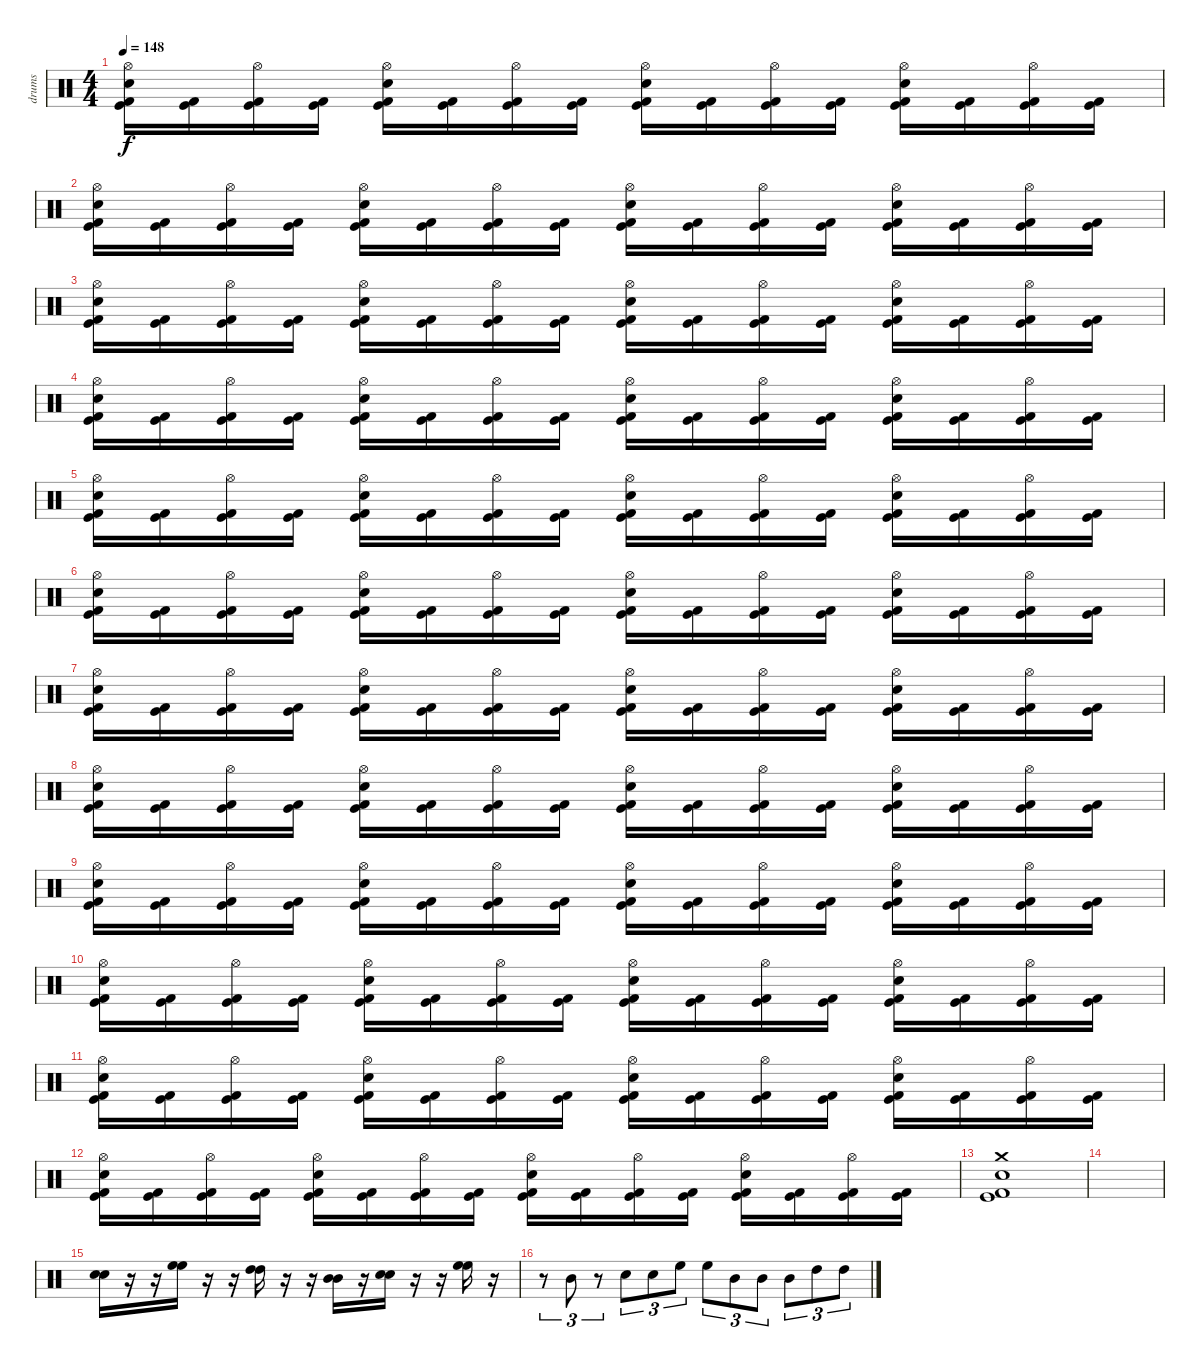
\track ("drums" "drums") {instrument percussion}
\staff {score}
\articulation defaults
\ts (4 4)
\tempo 148
\clef neutral
\ks c
("Kick (hit)" "Kick (hit) 2" "Snare (hit) 2" "Hi-Hat (open)").16{dy f} ("Kick (hit)" "Kick (hit) 2").16 ("Kick (hit)" "Kick (hit) 2" "Hi-Hat (open)").16 ("Kick (hit)" "Kick (hit) 2").16 ("Kick (hit)" "Kick (hit) 2" "Snare (hit) 2" "Hi-Hat (open)").16 ("Kick (hit)" "Kick (hit) 2").16 ("Kick (hit)" "Kick (hit) 2" "Hi-Hat (open)").16 ("Kick (hit)" "Kick (hit) 2").16 ("Kick (hit)" "Kick (hit) 2" "Snare (hit) 2" "Hi-Hat (open)").16 ("Kick (hit)" "Kick (hit) 2").16 ("Kick (hit)" "Kick (hit) 2" "Hi-Hat (open)").16 ("Kick (hit)" "Kick (hit) 2").16 ("Kick (hit)" "Kick (hit) 2" "Snare (hit) 2" "Hi-Hat (open)").16 ("Kick (hit)" "Kick (hit) 2").16 ("Kick (hit)" "Kick (hit) 2" "Hi-Hat (open)").16 ("Kick (hit)" "Kick (hit) 2").16 |
("Kick (hit)" "Kick (hit) 2" "Snare (hit) 2" "Hi-Hat (open)").16 ("Kick (hit)" "Kick (hit) 2").16 ("Kick (hit)" "Kick (hit) 2" "Hi-Hat (open)").16 ("Kick (hit)" "Kick (hit) 2").16 ("Kick (hit)" "Kick (hit) 2" "Snare (hit) 2" "Hi-Hat (open)").16 ("Kick (hit)" "Kick (hit) 2").16 ("Kick (hit)" "Kick (hit) 2" "Hi-Hat (open)").16 ("Kick (hit)" "Kick (hit) 2").16 ("Kick (hit)" "Kick (hit) 2" "Snare (hit) 2" "Hi-Hat (open)").16 ("Kick (hit)" "Kick (hit) 2").16 ("Kick (hit)" "Kick (hit) 2" "Hi-Hat (open)").16 ("Kick (hit)" "Kick (hit) 2").16 ("Kick (hit)" "Kick (hit) 2" "Snare (hit) 2" "Hi-Hat (open)").16 ("Kick (hit)" "Kick (hit) 2").16 ("Kick (hit)" "Kick (hit) 2" "Hi-Hat (open)").16 ("Kick (hit)" "Kick (hit) 2").16 |
("Kick (hit)" "Kick (hit) 2" "Snare (hit) 2" "Hi-Hat (open)").16 ("Kick (hit)" "Kick (hit) 2").16 ("Kick (hit)" "Kick (hit) 2" "Hi-Hat (open)").16 ("Kick (hit)" "Kick (hit) 2").16 ("Kick (hit)" "Kick (hit) 2" "Snare (hit) 2" "Hi-Hat (open)").16 ("Kick (hit)" "Kick (hit) 2").16 ("Kick (hit)" "Kick (hit) 2" "Hi-Hat (open)").16 ("Kick (hit)" "Kick (hit) 2").16 ("Kick (hit)" "Kick (hit) 2" "Snare (hit) 2" "Hi-Hat (open)").16 ("Kick (hit)" "Kick (hit) 2").16 ("Kick (hit)" "Kick (hit) 2" "Hi-Hat (open)").16 ("Kick (hit)" "Kick (hit) 2").16 ("Kick (hit)" "Kick (hit) 2" "Snare (hit) 2" "Hi-Hat (open)").16 ("Kick (hit)" "Kick (hit) 2").16 ("Kick (hit)" "Kick (hit) 2" "Hi-Hat (open)").16 ("Kick (hit)" "Kick (hit) 2").16 |
("Kick (hit)" "Kick (hit) 2" "Snare (hit) 2" "Hi-Hat (open)").16 ("Kick (hit)" "Kick (hit) 2").16 ("Kick (hit)" "Kick (hit) 2" "Hi-Hat (open)").16 ("Kick (hit)" "Kick (hit) 2").16 ("Kick (hit)" "Kick (hit) 2" "Snare (hit) 2" "Hi-Hat (open)").16 ("Kick (hit)" "Kick (hit) 2").16 ("Kick (hit)" "Kick (hit) 2" "Hi-Hat (open)").16 ("Kick (hit)" "Kick (hit) 2").16 ("Kick (hit)" "Kick (hit) 2" "Snare (hit) 2" "Hi-Hat (open)").16 ("Kick (hit)" "Kick (hit) 2").16 ("Kick (hit)" "Kick (hit) 2" "Hi-Hat (open)").16 ("Kick (hit)" "Kick (hit) 2").16 ("Kick (hit)" "Kick (hit) 2" "Snare (hit) 2" "Hi-Hat (open)").16 ("Kick (hit)" "Kick (hit) 2").16 ("Kick (hit)" "Kick (hit) 2" "Hi-Hat (open)").16 ("Kick (hit)" "Kick (hit) 2").16 |
("Kick (hit)" "Kick (hit) 2" "Snare (hit) 2" "Hi-Hat (open)").16 ("Kick (hit)" "Kick (hit) 2").16 ("Kick (hit)" "Kick (hit) 2" "Hi-Hat (open)").16 ("Kick (hit)" "Kick (hit) 2").16 ("Kick (hit)" "Kick (hit) 2" "Snare (hit) 2" "Hi-Hat (open)").16 ("Kick (hit)" "Kick (hit) 2").16 ("Kick (hit)" "Kick (hit) 2" "Hi-Hat (open)").16 ("Kick (hit)" "Kick (hit) 2").16 ("Kick (hit)" "Kick (hit) 2" "Snare (hit) 2" "Hi-Hat (open)").16 ("Kick (hit)" "Kick (hit) 2").16 ("Kick (hit)" "Kick (hit) 2" "Hi-Hat (open)").16 ("Kick (hit)" "Kick (hit) 2").16 ("Kick (hit)" "Kick (hit) 2" "Snare (hit) 2" "Hi-Hat (open)").16 ("Kick (hit)" "Kick (hit) 2").16 ("Kick (hit)" "Kick (hit) 2" "Hi-Hat (open)").16 ("Kick (hit)" "Kick (hit) 2").16 |
("Kick (hit)" "Kick (hit) 2" "Snare (hit) 2" "Hi-Hat (open)").16 ("Kick (hit)" "Kick (hit) 2").16 ("Kick (hit)" "Kick (hit) 2" "Hi-Hat (open)").16 ("Kick (hit)" "Kick (hit) 2").16 ("Kick (hit)" "Kick (hit) 2" "Snare (hit) 2" "Hi-Hat (open)").16 ("Kick (hit)" "Kick (hit) 2").16 ("Kick (hit)" "Kick (hit) 2" "Hi-Hat (open)").16 ("Kick (hit)" "Kick (hit) 2").16 ("Kick (hit)" "Kick (hit) 2" "Snare (hit) 2" "Hi-Hat (open)").16 ("Kick (hit)" "Kick (hit) 2").16 ("Kick (hit)" "Kick (hit) 2" "Hi-Hat (open)").16 ("Kick (hit)" "Kick (hit) 2").16 ("Kick (hit)" "Kick (hit) 2" "Snare (hit) 2" "Hi-Hat (open)").16 ("Kick (hit)" "Kick (hit) 2").16 ("Kick (hit)" "Kick (hit) 2" "Hi-Hat (open)").16 ("Kick (hit)" "Kick (hit) 2").16 |
("Kick (hit)" "Kick (hit) 2" "Snare (hit) 2" "Hi-Hat (open)").16 ("Kick (hit)" "Kick (hit) 2").16 ("Kick (hit)" "Kick (hit) 2" "Hi-Hat (open)").16 ("Kick (hit)" "Kick (hit) 2").16 ("Kick (hit)" "Kick (hit) 2" "Snare (hit) 2" "Hi-Hat (open)").16 ("Kick (hit)" "Kick (hit) 2").16 ("Kick (hit)" "Kick (hit) 2" "Hi-Hat (open)").16 ("Kick (hit)" "Kick (hit) 2").16 ("Kick (hit)" "Kick (hit) 2" "Snare (hit) 2" "Hi-Hat (open)").16 ("Kick (hit)" "Kick (hit) 2").16 ("Kick (hit)" "Kick (hit) 2" "Hi-Hat (open)").16 ("Kick (hit)" "Kick (hit) 2").16 ("Kick (hit)" "Kick (hit) 2" "Snare (hit) 2" "Hi-Hat (open)").16 ("Kick (hit)" "Kick (hit) 2").16 ("Kick (hit)" "Kick (hit) 2" "Hi-Hat (open)").16 ("Kick (hit)" "Kick (hit) 2").16 |
("Kick (hit)" "Kick (hit) 2" "Snare (hit) 2" "Hi-Hat (open)").16 ("Kick (hit)" "Kick (hit) 2").16 ("Kick (hit)" "Kick (hit) 2" "Hi-Hat (open)").16 ("Kick (hit)" "Kick (hit) 2").16 ("Kick (hit)" "Kick (hit) 2" "Snare (hit) 2" "Hi-Hat (open)").16 ("Kick (hit)" "Kick (hit) 2").16 ("Kick (hit)" "Kick (hit) 2" "Hi-Hat (open)").16 ("Kick (hit)" "Kick (hit) 2").16 ("Kick (hit)" "Kick (hit) 2" "Snare (hit) 2" "Hi-Hat (open)").16 ("Kick (hit)" "Kick (hit) 2").16 ("Kick (hit)" "Kick (hit) 2" "Hi-Hat (open)").16 ("Kick (hit)" "Kick (hit) 2").16 ("Kick (hit)" "Kick (hit) 2" "Snare (hit) 2" "Hi-Hat (open)").16 ("Kick (hit)" "Kick (hit) 2").16 ("Kick (hit)" "Kick (hit) 2" "Hi-Hat (open)").16 ("Kick (hit)" "Kick (hit) 2").16 |
("Kick (hit)" "Kick (hit) 2" "Snare (hit) 2" "Hi-Hat (open)").16 ("Kick (hit)" "Kick (hit) 2").16 ("Kick (hit)" "Kick (hit) 2" "Hi-Hat (open)").16 ("Kick (hit)" "Kick (hit) 2").16 ("Kick (hit)" "Kick (hit) 2" "Snare (hit) 2" "Hi-Hat (open)").16 ("Kick (hit)" "Kick (hit) 2").16 ("Kick (hit)" "Kick (hit) 2" "Hi-Hat (open)").16 ("Kick (hit)" "Kick (hit) 2").16 ("Kick (hit)" "Kick (hit) 2" "Snare (hit) 2" "Hi-Hat (open)").16 ("Kick (hit)" "Kick (hit) 2").16 ("Kick (hit)" "Kick (hit) 2" "Hi-Hat (open)").16 ("Kick (hit)" "Kick (hit) 2").16 ("Kick (hit)" "Kick (hit) 2" "Snare (hit) 2" "Hi-Hat (open)").16 ("Kick (hit)" "Kick (hit) 2").16 ("Kick (hit)" "Kick (hit) 2" "Hi-Hat (open)").16 ("Kick (hit)" "Kick (hit) 2").16 |
("Kick (hit)" "Kick (hit) 2" "Snare (hit) 2" "Hi-Hat (open)").16 ("Kick (hit)" "Kick (hit) 2").16 ("Kick (hit)" "Kick (hit) 2" "Hi-Hat (open)").16 ("Kick (hit)" "Kick (hit) 2").16 ("Kick (hit)" "Kick (hit) 2" "Snare (hit) 2" "Hi-Hat (open)").16 ("Kick (hit)" "Kick (hit) 2").16 ("Kick (hit)" "Kick (hit) 2" "Hi-Hat (open)").16 ("Kick (hit)" "Kick (hit) 2").16 ("Kick (hit)" "Kick (hit) 2" "Snare (hit) 2" "Hi-Hat (open)").16 ("Kick (hit)" "Kick (hit) 2").16 ("Kick (hit)" "Kick (hit) 2" "Hi-Hat (open)").16 ("Kick (hit)" "Kick (hit) 2").16 ("Kick (hit)" "Kick (hit) 2" "Snare (hit) 2" "Hi-Hat (open)").16 ("Kick (hit)" "Kick (hit) 2").16 ("Kick (hit)" "Kick (hit) 2" "Hi-Hat (open)").16 ("Kick (hit)" "Kick (hit) 2").16 |
("Kick (hit)" "Kick (hit) 2" "Snare (hit) 2" "Hi-Hat (open)").16 ("Kick (hit)" "Kick (hit) 2").16 ("Kick (hit)" "Kick (hit) 2" "Hi-Hat (open)").16 ("Kick (hit)" "Kick (hit) 2").16 ("Kick (hit)" "Kick (hit) 2" "Snare (hit) 2" "Hi-Hat (open)").16 ("Kick (hit)" "Kick (hit) 2").16 ("Kick (hit)" "Kick (hit) 2" "Hi-Hat (open)").16 ("Kick (hit)" "Kick (hit) 2").16 ("Kick (hit)" "Kick (hit) 2" "Snare (hit) 2" "Hi-Hat (open)").16 ("Kick (hit)" "Kick (hit) 2").16 ("Kick (hit)" "Kick (hit) 2" "Hi-Hat (open)").16 ("Kick (hit)" "Kick (hit) 2").16 ("Kick (hit)" "Kick (hit) 2" "Snare (hit) 2" "Hi-Hat (open)").16 ("Kick (hit)" "Kick (hit) 2").16 ("Kick (hit)" "Kick (hit) 2" "Hi-Hat (open)").16 ("Kick (hit)" "Kick (hit) 2").16 |
("Kick (hit)" "Kick (hit) 2" "Snare (hit) 2" "Hi-Hat (open)").16 ("Kick (hit)" "Kick (hit) 2").16 ("Kick (hit)" "Kick (hit) 2" "Hi-Hat (open)").16 ("Kick (hit)" "Kick (hit) 2").16 ("Kick (hit)" "Kick (hit) 2" "Snare (hit) 2" "Hi-Hat (open)").16 ("Kick (hit)" "Kick (hit) 2").16 ("Kick (hit)" "Kick (hit) 2" "Hi-Hat (open)").16 ("Kick (hit)" "Kick (hit) 2").16 ("Kick (hit)" "Kick (hit) 2" "Snare (hit) 2" "Hi-Hat (open)").16 ("Kick (hit)" "Kick (hit) 2").16 ("Kick (hit)" "Kick (hit) 2" "Hi-Hat (open)").16 ("Kick (hit)" "Kick (hit) 2").16 ("Kick (hit)" "Kick (hit) 2" "Snare (hit) 2" "Hi-Hat (open)").16 ("Kick (hit)" "Kick (hit) 2").16 ("Kick (hit)" "Kick (hit) 2" "Hi-Hat (open)").16 ("Kick (hit)" "Kick (hit) 2").16 |
("Snare (hit) 2" "Kick (hit)" "Kick (hit) 2" "Crash medium (hit)").1 |
|
("Snare (hit) 2" "Snare (hit) 2").16 r.16 r.16 ("High Floor Tom (hit)" "High Floor Tom (hit)").16 r.16 r.16 ("High Tom (hit)" "High Tom (hit)").16 r.16 r.16 ("Mid Tom (hit)" "Mid Tom (hit)").16 r.16 ("Snare (hit) 2" "Snare (hit) 2").16 r.16 r.16 ("High Floor Tom (hit)" "High Floor Tom (hit)").16 r.16 |
r.8{tu (3 2)} "Mid Tom (hit)".8{tu (3 2)} r.8{tu (3 2)} "Snare (hit) 2".8{tu (3 2)} "Snare (hit) 2".8{tu (3 2)} "High Floor Tom (hit)".8{tu (3 2)} "High Floor Tom (hit)".8{tu (3 2)} "Mid Tom (hit)".8{tu (3 2)} "Mid Tom (hit)".8{tu (3 2)} "Mid Tom (hit)".8{tu (3 2)} "High Tom (hit)".8{tu (3 2)} "High Tom (hit)".8{tu (3 2)}
